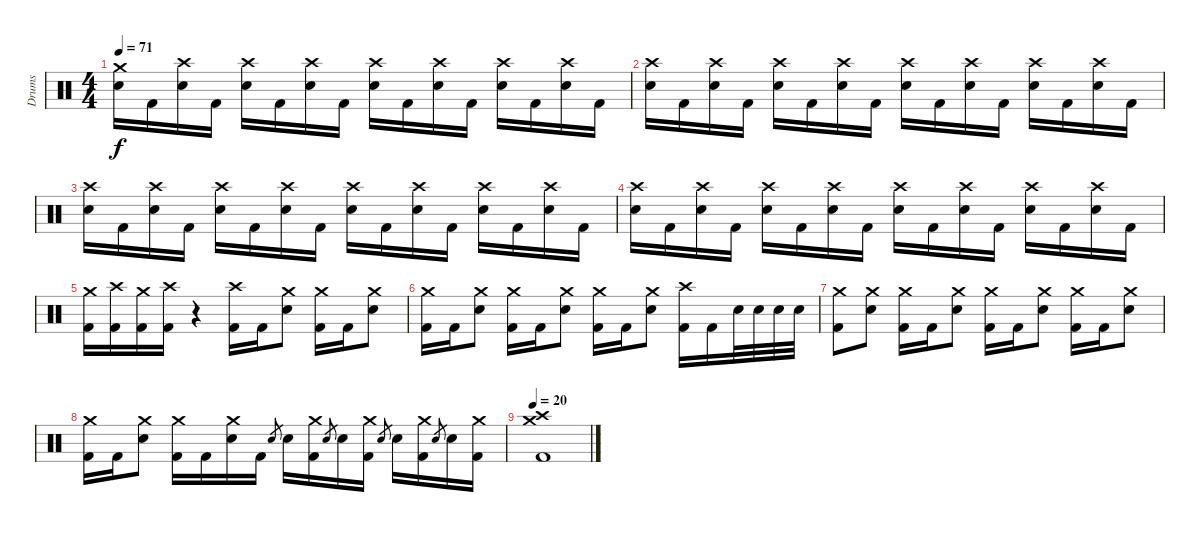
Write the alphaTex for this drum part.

\track ("Drums" "Drums") {instrument percussion}
\staff {score}
\articulation defaults
\ts (4 4)
\tempo 71
\clef neutral
\ks c
("Crash medium (hit)" "Snare (hit) 2").16{dy f} "Kick (hit) 2".16 ("Crash high (hit)" "Snare (hit) 2").16 "Kick (hit) 2".16 ("Crash high (hit)" "Snare (hit) 2").16 "Kick (hit) 2".16 ("Crash high (hit)" "Snare (hit) 2").16 "Kick (hit) 2".16 ("Crash high (hit)" "Snare (hit) 2").16 "Kick (hit) 2".16 ("Crash high (hit)" "Snare (hit) 2").16 "Kick (hit) 2".16 ("Crash high (hit)" "Snare (hit) 2").16 "Kick (hit) 2".16 ("Crash high (hit)" "Snare (hit) 2").16 "Kick (hit) 2".16 |
("Crash high (hit)" "Snare (hit) 2").16 "Kick (hit) 2".16 ("Crash high (hit)" "Snare (hit) 2").16 "Kick (hit) 2".16 ("Crash high (hit)" "Snare (hit) 2").16 "Kick (hit) 2".16 ("Crash high (hit)" "Snare (hit) 2").16 "Kick (hit) 2".16 ("Crash high (hit)" "Snare (hit) 2").16 "Kick (hit) 2".16 ("Crash high (hit)" "Snare (hit) 2").16 "Kick (hit) 2".16 ("Crash high (hit)" "Snare (hit) 2").16 "Kick (hit) 2".16 ("Crash high (hit)" "Snare (hit) 2").16 "Kick (hit) 2".16 |
("Crash high (hit)" "Snare (hit) 2").16 "Kick (hit) 2".16 ("Crash high (hit)" "Snare (hit) 2").16 "Kick (hit) 2".16 ("Crash high (hit)" "Snare (hit) 2").16 "Kick (hit) 2".16 ("Crash high (hit)" "Snare (hit) 2").16 "Kick (hit) 2".16 ("Crash high (hit)" "Snare (hit) 2").16 "Kick (hit) 2".16 ("Crash high (hit)" "Snare (hit) 2").16 "Kick (hit) 2".16 ("Crash high (hit)" "Snare (hit) 2").16 "Kick (hit) 2".16 ("Crash high (hit)" "Snare (hit) 2").16 "Kick (hit) 2".16 |
("Crash high (hit)" "Snare (hit) 2").16 "Kick (hit) 2".16 ("Crash high (hit)" "Snare (hit) 2").16 "Kick (hit) 2".16 ("Crash high (hit)" "Snare (hit) 2").16 "Kick (hit) 2".16 ("Crash high (hit)" "Snare (hit) 2").16 "Kick (hit) 2".16 ("Crash high (hit)" "Snare (hit) 2").16 "Kick (hit) 2".16 ("Crash high (hit)" "Snare (hit) 2").16 "Kick (hit) 2".16 ("Crash high (hit)" "Snare (hit) 2").16 "Kick (hit) 2".16 ("Crash high (hit)" "Snare (hit) 2").16 "Kick (hit) 2".16 |
("Crash medium (hit)" "Kick (hit) 2").16 ("Crash high (hit)" "Kick (hit) 2").16 ("Crash medium (hit)" "Kick (hit) 2").16 ("Crash high (hit)" "Kick (hit) 2").16 r.4{volume 0} ("Crash high (hit)" "Kick (hit) 2").16{volume 16} "Kick (hit) 2".16 ("Crash medium (hit)" "Snare (hit) 2").8 ("Crash medium (hit)" "Kick (hit) 2").16 "Kick (hit) 2".16 ("Crash medium (hit)" "Snare (hit) 2").8 |
("Crash medium (hit)" "Kick (hit) 2").16 "Kick (hit) 2".16 ("Crash medium (hit)" "Snare (hit) 2").8 ("Crash medium (hit)" "Kick (hit) 2").16 "Kick (hit) 2".16 ("Crash medium (hit)" "Snare (hit) 2").8 ("Crash medium (hit)" "Kick (hit) 2").16 "Kick (hit) 2".16 ("Crash medium (hit)" "Snare (hit) 2").8 ("Crash high (hit)" "Kick (hit) 2").16 "Kick (hit) 2".16 "Snare (hit) 2".32 "Snare (hit) 2".32 "Snare (hit) 2".32 "Snare (hit) 2".32 |
("Crash medium (hit)" "Kick (hit) 2").8 ("Crash medium (hit)" "Snare (hit) 2").8 ("Crash medium (hit)" "Kick (hit) 2").16 "Kick (hit) 2".16 ("Crash medium (hit)" "Snare (hit) 2").8 ("Crash medium (hit)" "Kick (hit) 2").16 "Kick (hit) 2".16 ("Crash medium (hit)" "Snare (hit) 2").8 ("Crash medium (hit)" "Kick (hit) 2").16 "Kick (hit) 2".16 ("Crash medium (hit)" "Snare (hit) 2").8 |
("Crash medium (hit)" "Kick (hit) 2").16 "Kick (hit) 2".16 ("Crash medium (hit)" "Snare (hit) 2").8 ("Crash medium (hit)" "Kick (hit) 2").16 "Kick (hit) 2".16 ("Crash medium (hit)" "Snare (hit) 2").16 "Kick (hit) 2".16 "Snare (hit) 2".8{gr} "Snare (hit) 2".16 ("Crash medium (hit)" "Kick (hit) 2").16 "Snare (hit) 2".8{gr} "Snare (hit) 2".16 ("Crash medium (hit)" "Kick (hit) 2").16 "Snare (hit) 2".8{gr} "Snare (hit) 2".16 ("Crash medium (hit)" "Kick (hit) 2").16 "Snare (hit) 2".8{gr} "Snare (hit) 2".16 ("Crash medium (hit)" "Kick (hit) 2").16 |
\tempo 20
("Crash high (hit)" "Crash medium (hit)" "Kick (hit) 2").1
